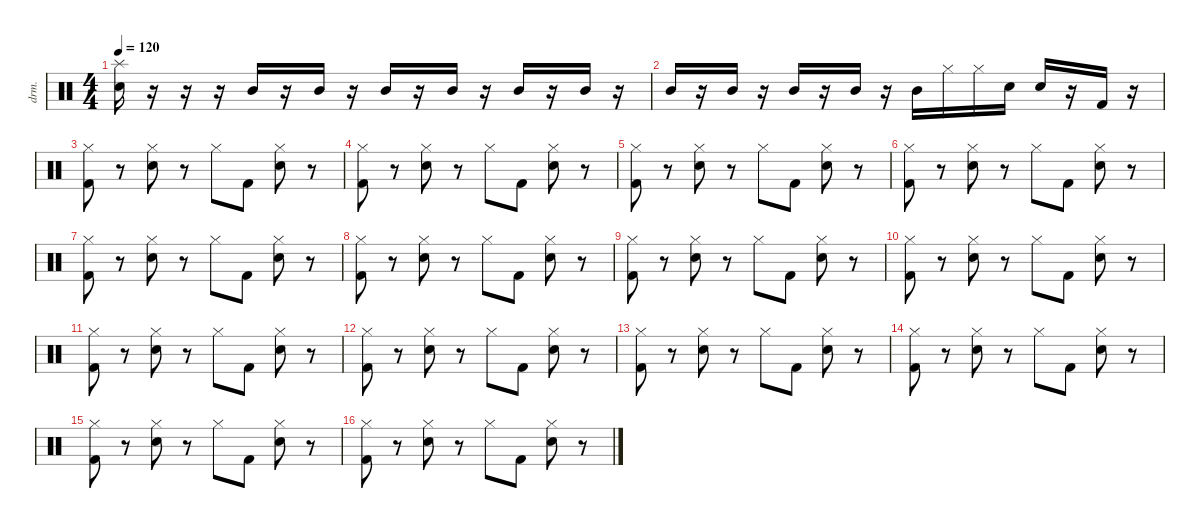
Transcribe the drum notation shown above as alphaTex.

\defaultSystemsLayout 4
\hideDynamics
\bracketExtendMode nobrackets
\otherSystemsTrackNameOrientation horizontal
\track ("Drumkit" "drm.") {instrument percussion}
\staff {score}
\articulation defaults
\ts (4 4)
\tempo 120
\clef neutral
\ks c
("Snare (hit) 2" "Splash (hit)").16{dy mf beam Down} r.16{beam Down} r.16{beam Down} r.16{beam Down} "Mid Tom (hit)".16{beam Up} r.16{beam Up} "Mid Tom (hit)".16{beam Up} r.16{beam Up} "Mid Tom (hit)".16{beam Up} r.16{beam Up} "Mid Tom (hit)".16{beam Up} r.16{beam Up} "Mid Tom (hit)".16{beam Up} r.16{beam Up} "Mid Tom (hit)".16{beam Up} r.16{beam Up} |
"Mid Tom (hit)".16{beam Up} r.16{beam Up} "Mid Tom (hit)".16{beam Up} r.16{beam Up} "Mid Tom (hit)".16{beam Up} r.16{beam Up} "Mid Tom (hit)".16{beam Up} r.16{beam Up} "Mid Tom (hit)".16{beam Down} "Hi-Hat (closed)".16{beam Down} "Hi-Hat (closed)".16{beam Down} "Snare (hit) 2".16{beam Down} "Snare (hit) 2".16{beam Up} r.16{beam Up} "Kick (hit) 2".16{beam Up} r.16{beam Up} |
("Kick (hit) 2" "Hi-Hat (closed)").8{beam Down} r.8{beam Down} ("Hi-Hat (closed)" "Snare (hit) 2").8{beam Down} r.8{beam Down} "Hi-Hat (closed)".8{beam Down} "Kick (hit) 2".8{beam Down} ("Hi-Hat (closed)" "Snare (hit) 2").8{beam Down} r.8{beam Down} |
("Kick (hit) 2" "Hi-Hat (closed)").8{beam Down} r.8{beam Down} ("Hi-Hat (closed)" "Snare (hit) 2").8{beam Down} r.8{beam Down} "Hi-Hat (closed)".8{beam Down} "Kick (hit) 2".8{beam Down} ("Hi-Hat (closed)" "Snare (hit) 2").8{beam Down} r.8{beam Down} |
("Kick (hit) 2" "Hi-Hat (closed)").8{beam Down} r.8{beam Down} ("Hi-Hat (closed)" "Snare (hit) 2").8{beam Down} r.8{beam Down} "Hi-Hat (closed)".8{beam Down} "Kick (hit) 2".8{beam Down} ("Hi-Hat (closed)" "Snare (hit) 2").8{beam Down} r.8{beam Down} |
("Kick (hit) 2" "Hi-Hat (closed)").8{beam Down} r.8{beam Down} ("Hi-Hat (closed)" "Snare (hit) 2").8{beam Down} r.8{beam Down} "Hi-Hat (closed)".8{beam Down} "Kick (hit) 2".8{beam Down} ("Hi-Hat (closed)" "Snare (hit) 2").8{beam Down} r.8{beam Down} |
("Kick (hit) 2" "Hi-Hat (closed)").8{beam Down} r.8{beam Down} ("Hi-Hat (closed)" "Snare (hit) 2").8{beam Down} r.8{beam Down} "Hi-Hat (closed)".8{beam Down} "Kick (hit) 2".8{beam Down} ("Hi-Hat (closed)" "Snare (hit) 2").8{beam Down} r.8{beam Down} |
("Kick (hit) 2" "Hi-Hat (closed)").8{beam Down} r.8{beam Down} ("Hi-Hat (closed)" "Snare (hit) 2").8{beam Down} r.8{beam Down} "Hi-Hat (closed)".8{beam Down} "Kick (hit) 2".8{beam Down} ("Hi-Hat (closed)" "Snare (hit) 2").8{beam Down} r.8{beam Down} |
("Kick (hit) 2" "Hi-Hat (closed)").8{beam Down} r.8{beam Down} ("Hi-Hat (closed)" "Snare (hit) 2").8{beam Down} r.8{beam Down} "Hi-Hat (closed)".8{beam Down} "Kick (hit) 2".8{beam Down} ("Hi-Hat (closed)" "Snare (hit) 2").8{beam Down} r.8{beam Down} |
("Kick (hit) 2" "Hi-Hat (closed)").8{beam Down} r.8{beam Down} ("Hi-Hat (closed)" "Snare (hit) 2").8{beam Down} r.8{beam Down} "Hi-Hat (closed)".8{beam Down} "Kick (hit) 2".8{beam Down} ("Hi-Hat (closed)" "Snare (hit) 2").8{beam Down} r.8{beam Down} |
("Kick (hit) 2" "Hi-Hat (closed)").8{beam Down} r.8{beam Down} ("Hi-Hat (closed)" "Snare (hit) 2").8{beam Down} r.8{beam Down} "Hi-Hat (closed)".8{beam Down} "Kick (hit) 2".8{beam Down} ("Hi-Hat (closed)" "Snare (hit) 2").8{beam Down} r.8{beam Down} |
("Kick (hit) 2" "Hi-Hat (closed)").8{beam Down} r.8{beam Down} ("Hi-Hat (closed)" "Snare (hit) 2").8{beam Down} r.8{beam Down} "Hi-Hat (closed)".8{beam Down} "Kick (hit) 2".8{beam Down} ("Hi-Hat (closed)" "Snare (hit) 2").8{beam Down} r.8{beam Down} |
("Kick (hit) 2" "Hi-Hat (closed)").8{beam Down} r.8{beam Down} ("Hi-Hat (closed)" "Snare (hit) 2").8{beam Down} r.8{beam Down} "Hi-Hat (closed)".8{beam Down} "Kick (hit) 2".8{beam Down} ("Hi-Hat (closed)" "Snare (hit) 2").8{beam Down} r.8{beam Down} |
("Kick (hit) 2" "Hi-Hat (closed)").8{beam Down} r.8{beam Down} ("Hi-Hat (closed)" "Snare (hit) 2").8{beam Down} r.8{beam Down} "Hi-Hat (closed)".8{beam Down} "Kick (hit) 2".8{beam Down} ("Hi-Hat (closed)" "Snare (hit) 2").8{beam Down} r.8{beam Down} |
("Kick (hit) 2" "Hi-Hat (closed)").8{beam Down} r.8{beam Down} ("Hi-Hat (closed)" "Snare (hit) 2").8{beam Down} r.8{beam Down} "Hi-Hat (closed)".8{beam Down} "Kick (hit) 2".8{beam Down} ("Hi-Hat (closed)" "Snare (hit) 2").8{beam Down} r.8{beam Down} |
("Kick (hit) 2" "Hi-Hat (closed)").8{beam Down} r.8{beam Down} ("Hi-Hat (closed)" "Snare (hit) 2").8{beam Down} r.8{beam Down} "Hi-Hat (closed)".8{beam Down} "Kick (hit) 2".8{beam Down} ("Hi-Hat (closed)" "Snare (hit) 2").8{beam Down} r.8{beam Down}
